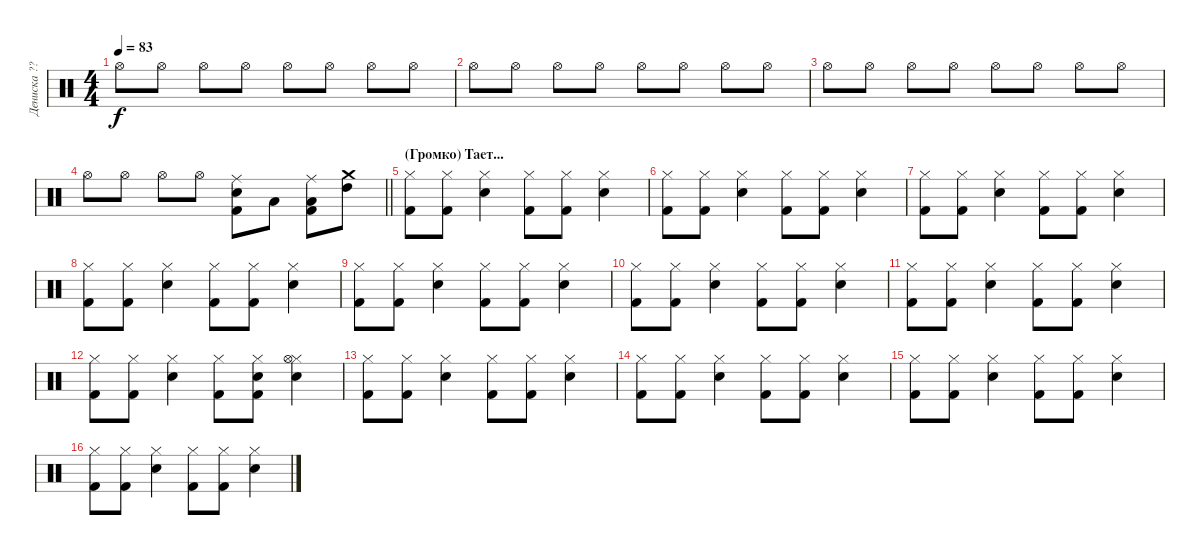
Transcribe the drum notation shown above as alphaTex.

\track ("Дениска ??" "Дениска ??") {instrument percussion}
\staff {score}
\articulation defaults
\ts (4 4)
\tempo 83
\clef neutral
\ks c "Hi-Hat (open)".8{dy f} "Hi-Hat (open)".8 "Hi-Hat (open)".8 "Hi-Hat (open)".8 "Hi-Hat (open)".8 "Hi-Hat (open)".8 "Hi-Hat (open)".8 "Hi-Hat (open)".8
|
"Hi-Hat (open)".8 "Hi-Hat (open)".8 "Hi-Hat (open)".8 "Hi-Hat (open)".8 "Hi-Hat (open)".8 "Hi-Hat (open)".8 "Hi-Hat (open)".8 "Hi-Hat (open)".8 |
"Hi-Hat (open)".8 "Hi-Hat (open)".8 "Hi-Hat (open)".8 "Hi-Hat (open)".8 "Hi-Hat (open)".8 "Hi-Hat (open)".8 "Hi-Hat (open)".8 "Hi-Hat (open)".8 |
\barLineRight lightlight "Hi-Hat (open)".8 "Hi-Hat (open)".8 "Hi-Hat (open)".8 "Hi-Hat (open)".8
("Kick (hit) 2" "Electric Snare (hit)" "Ride (middle)").8 "Low Floor Tom (hit)".8 ("Kick (hit) 2" "Low Tom (hit)" "Ride (middle)").8 ("High Tom (hit)" "Crash medium (hit)").8 |
\section ("" "(Громко) Тает...")
("Hi-Hat (closed)" "Kick (hit) 2").8 ("Hi-Hat (closed)" "Kick (hit) 2").8 ("Hi-Hat (closed)" "Electric Snare (hit)").4 ("Hi-Hat (closed)" "Kick (hit) 2").8 ("Hi-Hat (closed)" "Kick (hit) 2").8 ("Hi-Hat (closed)" "Electric Snare (hit)").4 |
("Hi-Hat (closed)" "Kick (hit) 2").8 ("Hi-Hat (closed)" "Kick (hit) 2").8 ("Hi-Hat (closed)" "Electric Snare (hit)").4 ("Hi-Hat (closed)" "Kick (hit) 2").8 ("Hi-Hat (closed)" "Kick (hit) 2").8 ("Hi-Hat (closed)" "Electric Snare (hit)").4 |
("Hi-Hat (closed)" "Kick (hit) 2").8 ("Hi-Hat (closed)" "Kick (hit) 2").8 ("Hi-Hat (closed)" "Electric Snare (hit)").4 ("Hi-Hat (closed)" "Kick (hit) 2").8 ("Hi-Hat (closed)" "Kick (hit) 2").8 ("Hi-Hat (closed)" "Electric Snare (hit)").4 |
("Hi-Hat (closed)" "Kick (hit) 2").8 ("Hi-Hat (closed)" "Kick (hit) 2").8 ("Hi-Hat (closed)" "Electric Snare (hit)").4 ("Hi-Hat (closed)" "Kick (hit) 2").8 ("Hi-Hat (closed)" "Kick (hit) 2").8 ("Hi-Hat (closed)" "Electric Snare (hit)").4 |
("Hi-Hat (closed)" "Kick (hit) 2").8 ("Hi-Hat (closed)" "Kick (hit) 2").8 ("Hi-Hat (closed)" "Electric Snare (hit)").4 ("Hi-Hat (closed)" "Kick (hit) 2").8 ("Hi-Hat (closed)" "Kick (hit) 2").8 ("Hi-Hat (closed)" "Electric Snare (hit)").4 |
("Hi-Hat (closed)" "Kick (hit) 2").8 ("Hi-Hat (closed)" "Kick (hit) 2").8 ("Hi-Hat (closed)" "Electric Snare (hit)").4 ("Hi-Hat (closed)" "Kick (hit) 2").8 ("Hi-Hat (closed)" "Kick (hit) 2").8 ("Hi-Hat (closed)" "Electric Snare (hit)").4 |
("Hi-Hat (closed)" "Kick (hit) 2").8 ("Hi-Hat (closed)" "Kick (hit) 2").8 ("Hi-Hat (closed)" "Electric Snare (hit)").4 ("Hi-Hat (closed)" "Kick (hit) 2").8 ("Hi-Hat (closed)" "Kick (hit) 2").8 ("Hi-Hat (closed)" "Electric Snare (hit)").4 |
("Hi-Hat (closed)" "Kick (hit) 2").8 ("Hi-Hat (closed)" "Kick (hit) 2").8 ("Hi-Hat (closed)" "Electric Snare (hit)").4 ("Hi-Hat (closed)" "Kick (hit) 2").8 ("Hi-Hat (closed)" "Kick (hit) 2" "Electric Snare (hit)").8 ("Hi-Hat (closed)" "Hi-Hat (open)" "Snare (hit) 2").4 |
("Hi-Hat (closed)" "Kick (hit) 2").8 ("Hi-Hat (closed)" "Kick (hit) 2").8 ("Hi-Hat (closed)" "Electric Snare (hit)").4 ("Hi-Hat (closed)" "Kick (hit) 2").8 ("Hi-Hat (closed)" "Kick (hit) 2").8 ("Hi-Hat (closed)" "Electric Snare (hit)").4 |
("Hi-Hat (closed)" "Kick (hit) 2").8 ("Hi-Hat (closed)" "Kick (hit) 2").8 ("Hi-Hat (closed)" "Electric Snare (hit)").4 ("Hi-Hat (closed)" "Kick (hit) 2").8 ("Hi-Hat (closed)" "Kick (hit) 2").8 ("Hi-Hat (closed)" "Electric Snare (hit)").4 |
("Hi-Hat (closed)" "Kick (hit) 2").8 ("Hi-Hat (closed)" "Kick (hit) 2").8 ("Hi-Hat (closed)" "Electric Snare (hit)").4 ("Hi-Hat (closed)" "Kick (hit) 2").8 ("Hi-Hat (closed)" "Kick (hit) 2").8 ("Hi-Hat (closed)" "Electric Snare (hit)").4 |
("Hi-Hat (closed)" "Kick (hit) 2").8 ("Hi-Hat (closed)" "Kick (hit) 2").8 ("Hi-Hat (closed)" "Electric Snare (hit)").4 ("Hi-Hat (closed)" "Kick (hit) 2").8 ("Hi-Hat (closed)" "Kick (hit) 2").8 ("Hi-Hat (closed)" "Electric Snare (hit)").4
